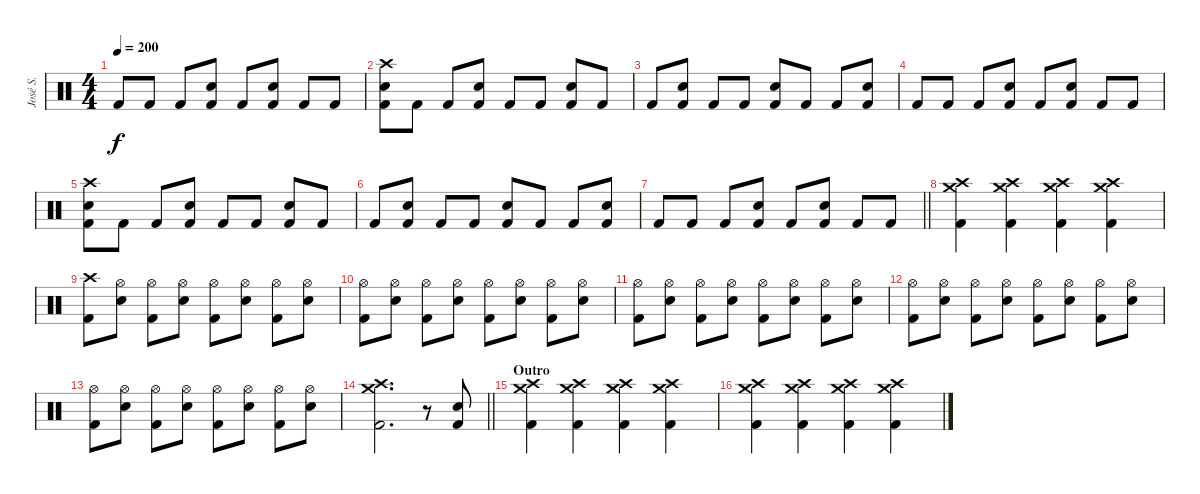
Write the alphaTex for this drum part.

\track ("José S." "José S.") {instrument percussion}
\staff {score}
\articulation defaults
\ts (4 4)
\tempo 200
\clef neutral
\ks c "Kick (hit) 2".8{dy f} "Kick (hit) 2".8 "Kick (hit) 2".8
("Electric Snare (hit)" "Kick (hit) 2").8 "Kick (hit) 2".8 ("Electric Snare (hit)" "Kick (hit) 2").8 "Kick (hit) 2".8 "Kick (hit) 2".8 |
("Crash high (hit)" "Electric Snare (hit)" "Kick (hit) 2").8 "Kick (hit) 2".8 "Kick (hit) 2".8 ("Electric Snare (hit)" "Kick (hit) 2").8 "Kick (hit) 2".8 "Kick (hit) 2".8 ("Electric Snare (hit)" "Kick (hit) 2").8 "Kick (hit) 2".8 |
"Kick (hit) 2".8 ("Electric Snare (hit)" "Kick (hit) 2").8 "Kick (hit) 2".8 "Kick (hit) 2".8 ("Electric Snare (hit)" "Kick (hit) 2").8 "Kick (hit) 2".8 "Kick (hit) 2".8 ("Electric Snare (hit)" "Kick (hit) 2").8 |
"Kick (hit) 2".8 "Kick (hit) 2".8 "Kick (hit) 2".8 ("Electric Snare (hit)" "Kick (hit) 2").8 "Kick (hit) 2".8 ("Electric Snare (hit)" "Kick (hit) 2").8 "Kick (hit) 2".8 "Kick (hit) 2".8 |
("Crash high (hit)" "Electric Snare (hit)" "Kick (hit) 2").8 "Kick (hit) 2".8 "Kick (hit) 2".8 ("Electric Snare (hit)" "Kick (hit) 2").8 "Kick (hit) 2".8 "Kick (hit) 2".8 ("Electric Snare (hit)" "Kick (hit) 2").8 "Kick (hit) 2".8 |
"Kick (hit) 2".8 ("Electric Snare (hit)" "Kick (hit) 2").8 "Kick (hit) 2".8 "Kick (hit) 2".8 ("Electric Snare (hit)" "Kick (hit) 2").8 "Kick (hit) 2".8 "Kick (hit) 2".8 ("Electric Snare (hit)" "Kick (hit) 2").8 |
\barLineRight lightlight "Kick (hit) 2".8 "Kick (hit) 2".8 "Kick (hit) 2".8
("Electric Snare (hit)" "Kick (hit) 2").8 "Kick (hit) 2".8 ("Electric Snare (hit)" "Kick (hit) 2").8 "Kick (hit) 2".8 "Kick (hit) 2".8 |
("Crash high (hit)" "Crash medium (hit)" "Kick (hit) 2").4 ("Crash high (hit)" "Crash medium (hit)" "Kick (hit) 2").4 ("Crash high (hit)" "Crash medium (hit)" "Kick (hit) 2").4 ("Crash high (hit)" "Crash medium (hit)" "Kick (hit) 2").4 |
("Crash high (hit)" "Kick (hit) 2").8 ("Hi-Hat (open)" "Electric Snare (hit)").8 ("Hi-Hat (open)" "Kick (hit) 2").8 ("Hi-Hat (open)" "Electric Snare (hit)").8 ("Hi-Hat (open)" "Kick (hit) 2").8 ("Hi-Hat (open)" "Electric Snare (hit)").8 ("Hi-Hat (open)" "Kick (hit) 2").8 ("Hi-Hat (open)" "Electric Snare (hit)").8 |
("Hi-Hat (open)" "Kick (hit) 2").8 ("Hi-Hat (open)" "Electric Snare (hit)").8 ("Hi-Hat (open)" "Kick (hit) 2").8 ("Hi-Hat (open)" "Electric Snare (hit)").8 ("Hi-Hat (open)" "Kick (hit) 2").8 ("Hi-Hat (open)" "Electric Snare (hit)").8 ("Hi-Hat (open)" "Kick (hit) 2").8 ("Hi-Hat (open)" "Electric Snare (hit)").8 |
("Hi-Hat (open)" "Kick (hit) 2").8 ("Hi-Hat (open)" "Electric Snare (hit)").8 ("Hi-Hat (open)" "Kick (hit) 2").8 ("Hi-Hat (open)" "Electric Snare (hit)").8 ("Hi-Hat (open)" "Kick (hit) 2").8 ("Hi-Hat (open)" "Electric Snare (hit)").8 ("Hi-Hat (open)" "Kick (hit) 2").8 ("Hi-Hat (open)" "Electric Snare (hit)").8 |
("Hi-Hat (open)" "Kick (hit) 2").8 ("Hi-Hat (open)" "Electric Snare (hit)").8 ("Hi-Hat (open)" "Kick (hit) 2").8 ("Hi-Hat (open)" "Electric Snare (hit)").8 ("Hi-Hat (open)" "Kick (hit) 2").8 ("Hi-Hat (open)" "Electric Snare (hit)").8 ("Hi-Hat (open)" "Kick (hit) 2").8 ("Hi-Hat (open)" "Electric Snare (hit)").8 |
("Hi-Hat (open)" "Kick (hit) 2").8 ("Hi-Hat (open)" "Electric Snare (hit)").8 ("Hi-Hat (open)" "Kick (hit) 2").8 ("Hi-Hat (open)" "Electric Snare (hit)").8 ("Hi-Hat (open)" "Kick (hit) 2").8 ("Hi-Hat (open)" "Electric Snare (hit)").8 ("Hi-Hat (open)" "Kick (hit) 2").8 ("Hi-Hat (open)" "Electric Snare (hit)").8 |
\barLineRight lightlight
("Crash high (hit)" "Crash medium (hit)" "Kick (hit) 2").2{d} r.8 ("Snare (hit) 2" "Kick (hit) 2").8 |
\section ("" "Outro")
("Crash high (hit)" "Crash medium (hit)" "Kick (hit) 2").4 ("Crash high (hit)" "Crash medium (hit)" "Kick (hit) 2").4 ("Crash high (hit)" "Crash medium (hit)" "Kick (hit) 2").4 ("Crash high (hit)" "Crash medium (hit)" "Kick (hit) 2").4 |
("Crash high (hit)" "Crash medium (hit)" "Kick (hit) 2").4 ("Crash high (hit)" "Crash medium (hit)" "Kick (hit) 2").4 ("Crash high (hit)" "Crash medium (hit)" "Kick (hit) 2").4 ("Crash high (hit)" "Crash medium (hit)" "Kick (hit) 2").4
